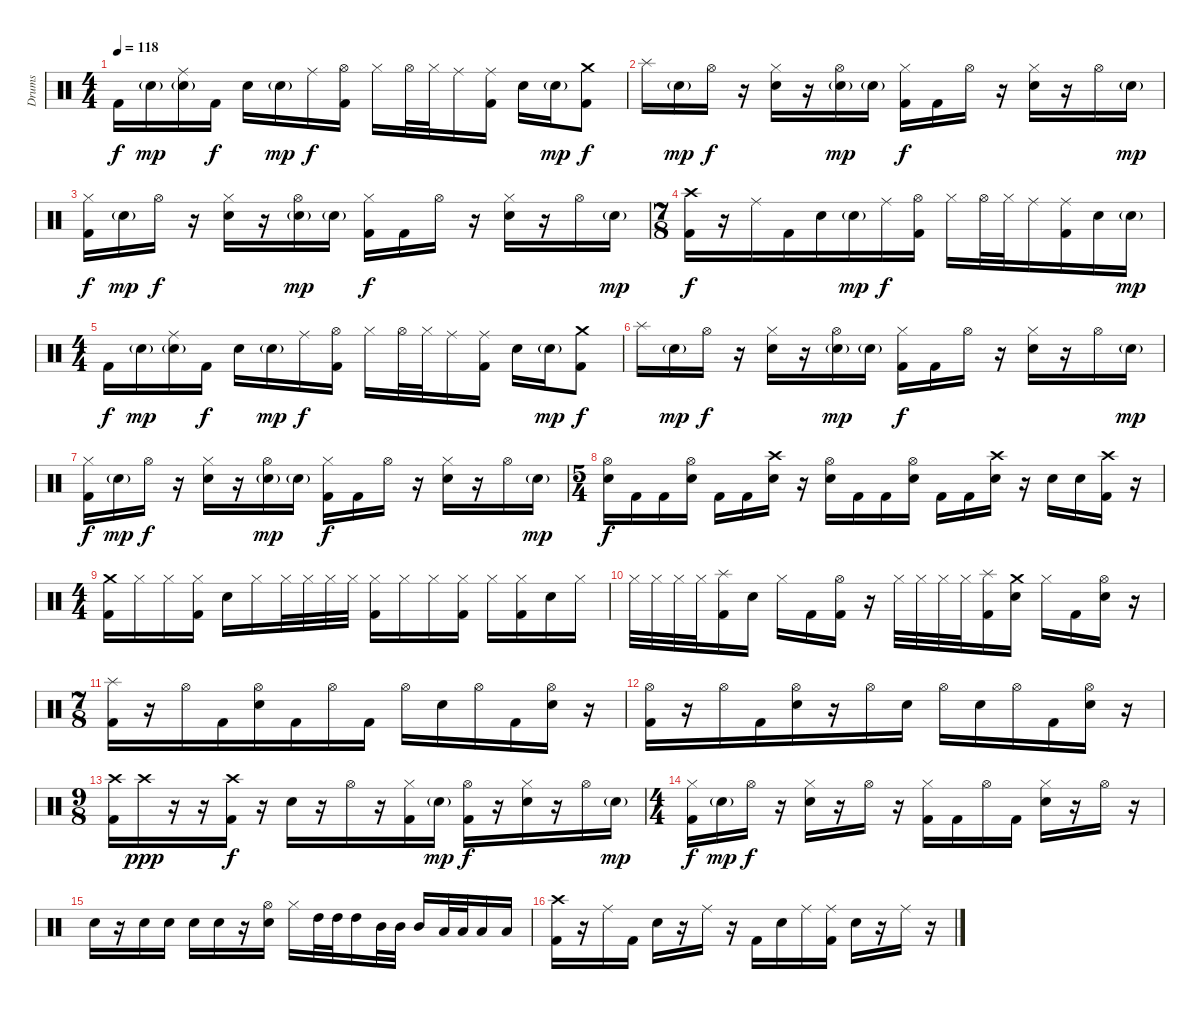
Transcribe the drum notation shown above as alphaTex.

\track ("Drums" "Drums") {instrument percussion}
\staff {score}
\articulation defaults
\ts (4 4)
\tempo 118
\clef neutral
\ks c "Kick (hit) 2".16{dy f} "Snare (hit) 2"{g}.16{dy mp}
("Ride (middle)" "Snare (hit) 2"{g}).16 "Kick (hit) 2".16{dy f} "Snare (hit) 2".16 "Snare (hit) 2"{g}.16{dy mp} "Ride (middle)".16{dy f} ("Hi-Hat (open)" "Kick (hit) 2").16 "Hi-Hat (closed)".16 "Hi-Hat (open)".32 "Hi-Hat (closed)".32 "Ride (middle)".16 ("Kick (hit) 2" "Ride (middle)").16 "Snare (hit) 2".16 "Snare (hit) 2"{g}.16{dy mp} ("Crash medium (hit)" "Kick (hit) 2").8{dy f} |
"Splash (hit)".16 "Snare (hit) 2"{g}.16{dy mp} "Hi-Hat (open)".16{dy f} r.16 ("Hi-Hat (closed)" "Snare (hit) 2").16 r.16 ("Hi-Hat (open)" "Snare (hit) 2"{g}).16{dy mp} "Snare (hit) 2"{g}.16 ("Hi-Hat (closed)" "Kick (hit) 2").16{dy f} "Kick (hit) 2".16 "Hi-Hat (open)".16 r.16 ("Snare (hit) 2" "Hi-Hat (closed)").16 r.16 "Hi-Hat (open)".16 "Snare (hit) 2"{g}.16{dy mp} |
("Hi-Hat (closed)" "Kick (hit) 2").16{dy f} "Snare (hit) 2"{g}.16{dy mp} "Hi-Hat (open)".16{dy f} r.16 ("Hi-Hat (closed)" "Snare (hit) 2").16 r.16 ("Hi-Hat (open)" "Snare (hit) 2"{g}).16{dy mp} "Snare (hit) 2"{g}.16 ("Hi-Hat (closed)" "Kick (hit) 2").16{dy f} "Kick (hit) 2".16 "Hi-Hat (open)".16 r.16 ("Snare (hit) 2" "Hi-Hat (closed)").16 r.16 "Hi-Hat (open)".16 "Snare (hit) 2"{g}.16{dy mp} |
\ts (7 8)
("Crash high (hit)" "Kick (hit) 2").16{dy f} r.16 "Ride (middle)".16 "Kick (hit) 2".16 "Snare (hit) 2".16 "Snare (hit) 2"{g}.16{dy mp} "Ride (middle)".16{dy f} ("Hi-Hat (open)" "Kick (hit) 2").16 "Hi-Hat (closed)".16 "Hi-Hat (open)".32 "Hi-Hat (closed)".32 "Ride (middle)".16 ("Kick (hit) 2" "Ride (middle)").16 "Snare (hit) 2".16 "Snare (hit) 2"{g}.16{dy mp} |
\ts (4 4)
"Kick (hit) 2".16{dy f} "Snare (hit) 2"{g}.16{dy mp} ("Ride (middle)" "Snare (hit) 2"{g}).16 "Kick (hit) 2".16{dy f} "Snare (hit) 2".16 "Snare (hit) 2"{g}.16{dy mp} "Ride (middle)".16{dy f} ("Hi-Hat (open)" "Kick (hit) 2").16 "Hi-Hat (closed)".16 "Hi-Hat (open)".32 "Hi-Hat (closed)".32 "Ride (middle)".16 ("Kick (hit) 2" "Ride (middle)").16 "Snare (hit) 2".16 "Snare (hit) 2"{g}.16{dy mp} ("Crash medium (hit)" "Kick (hit) 2").8{dy f} |
"Splash (hit)".16 "Snare (hit) 2"{g}.16{dy mp} "Hi-Hat (open)".16{dy f} r.16 ("Hi-Hat (closed)" "Snare (hit) 2").16 r.16 ("Hi-Hat (open)" "Snare (hit) 2"{g}).16{dy mp} "Snare (hit) 2"{g}.16 ("Hi-Hat (closed)" "Kick (hit) 2").16{dy f} "Kick (hit) 2".16 "Hi-Hat (open)".16 r.16 ("Snare (hit) 2" "Hi-Hat (closed)").16 r.16 "Hi-Hat (open)".16 "Snare (hit) 2"{g}.16{dy mp} |
("Hi-Hat (closed)" "Kick (hit) 2").16{dy f} "Snare (hit) 2"{g}.16{dy mp} "Hi-Hat (open)".16{dy f} r.16 ("Hi-Hat (closed)" "Snare (hit) 2").16 r.16 ("Hi-Hat (open)" "Snare (hit) 2"{g}).16{dy mp} "Snare (hit) 2"{g}.16 ("Hi-Hat (closed)" "Kick (hit) 2").16{dy f} "Kick (hit) 2".16 "Hi-Hat (open)".16 r.16 ("Snare (hit) 2" "Hi-Hat (closed)").16 r.16 "Hi-Hat (open)".16 "Snare (hit) 2"{g}.16{dy mp} |
\ts (5 4)
("Snare (hit) 2" "Hi-Hat (open)").16{dy f} "Kick (hit) 2".16 "Kick (hit) 2".16 ("Snare (hit) 2" "Hi-Hat (open)").16 "Kick (hit) 2".16 "Kick (hit) 2".16 ("Snare (hit) 2" "Crash high (hit)").16 r.16 ("Snare (hit) 2" "Hi-Hat (open)").16 "Kick (hit) 2".16 "Kick (hit) 2".16 ("Snare (hit) 2" "Hi-Hat (open)").16 "Kick (hit) 2".16 "Kick (hit) 2".16 ("Snare (hit) 2" "Crash high (hit)").16 r.16 "Snare (hit) 2".16 "Snare (hit) 2".16 ("Kick (hit) 2" "Crash high (hit)").16 r.16 |
\ts (4 4)
("Crash medium (hit)" "Kick (hit) 2").16 "Hi-Hat (closed)".16 "Hi-Hat (closed)".16 ("Hi-Hat (closed)" "Kick (hit) 2").16 "Snare (hit) 2".16 "Hi-Hat (closed)".16 "Hi-Hat (closed)".32 "Hi-Hat (closed)".32 "Hi-Hat (closed)".32 "Hi-Hat (closed)".32 ("Hi-Hat (closed)" "Kick (hit) 2").16 "Hi-Hat (closed)".16 "Hi-Hat (closed)".16 ("Hi-Hat (closed)" "Kick (hit) 2").16 "Hi-Hat (closed)".16 ("Kick (hit) 2" "Hi-Hat (closed)").16 "Snare (hit) 2".16 "Hi-Hat (closed)".16 |
"Hi-Hat (closed)".32 "Hi-Hat (closed)".32 "Hi-Hat (closed)".32 "Hi-Hat (closed)".32 ("Kick (hit) 2" "Splash (hit)").16 "Snare (hit) 2".16 "Hi-Hat (closed)".16 "Kick (hit) 2".16 ("Kick (hit) 2" "Hi-Hat (open)").16 r.16 "Hi-Hat (closed)".32 "Hi-Hat (closed)".32 "Hi-Hat (closed)".32 "Hi-Hat (closed)".32 ("Kick (hit) 2" "Splash (hit)").16 ("Snare (hit) 2" "Crash medium (hit)").16 "Hi-Hat (closed)".16 "Kick (hit) 2".16 ("Snare (hit) 2" "Hi-Hat (open)").16 r.16 |
\ts (7 8)
("Splash (hit)" "Kick (hit) 2").16 r.16 "Hi-Hat (open)".16 "Kick (hit) 2".16 ("Snare (hit) 2" "Hi-Hat (open)").16 "Kick (hit) 2".16 "Hi-Hat (open)".16 "Kick (hit) 2".16 "Hi-Hat (open)".16 "Snare (hit) 2".16 "Hi-Hat (open)".16 "Kick (hit) 2".16 ("Snare (hit) 2" "Hi-Hat (open)").16 r.16 |
("Hi-Hat (open)" "Kick (hit) 2").16 r.16 "Hi-Hat (open)".16 "Kick (hit) 2".16 ("Snare (hit) 2" "Hi-Hat (open)").16 r.16 "Hi-Hat (open)".16 "Snare (hit) 2".16 "Hi-Hat (open)".16 "Snare (hit) 2".16 "Hi-Hat (open)".16 "Kick (hit) 2".16 ("Snare (hit) 2" "Hi-Hat (open)").16 r.16 |
\ts (9 8)
("Kick (hit) 2" "Crash high (hit)").16 "Crash high (hit)".16{dy ppp} r.16 r.16 ("Kick (hit) 2" "Crash high (hit)").16{dy f} r.16 "Snare (hit) 2".16 r.16 "Hi-Hat (open)".16 r.16 ("Hi-Hat (closed)" "Kick (hit) 2").16 "Snare (hit) 2"{g}.16{dy mp} ("Kick (hit) 2" "Hi-Hat (open)").16{dy f} r.16 ("Hi-Hat (closed)" "Snare (hit) 2").16 r.16 "Hi-Hat (open)".16 "Snare (hit) 2"{g}.16{dy mp} |
\ts (4 4)
("Kick (hit) 2" "Hi-Hat (closed)").16{dy f} "Snare (hit) 2"{g}.16{dy mp} "Hi-Hat (open)".16{dy f} r.16 ("Hi-Hat (closed)" "Snare (hit) 2").16 r.16 "Hi-Hat (open)".16 r.16 ("Hi-Hat (closed)" "Kick (hit) 2").16 "Kick (hit) 2".16 "Hi-Hat (open)".16 "Kick (hit) 2".16 ("Snare (hit) 2" "Hi-Hat (closed)").16 r.16 "Hi-Hat (open)".16 r.16 |
"Snare (hit) 2".16 r.16 "Snare (hit) 2".16 "Snare (hit) 2".16 "Snare (hit) 2".16 "Snare (hit) 2".16 r.16 ("Snare (hit) 2" "Hi-Hat (open)").16 "Hi-Hat (closed)".16 "High Tom (hit)".32 "High Tom (hit)".32 "High Tom (hit)".16 "Mid Tom (hit)".32 "Mid Tom (hit)".32 "Mid Tom (hit)".16 "Low Tom (hit)".32 "Low Tom (hit)".32 "Low Tom (hit)".16 "Low Tom (hit)".16 |
("Crash high (hit)" "Kick (hit) 2").16 r.16 "Ride (middle)".16 "Kick (hit) 2".16 "Snare (hit) 2".16 r.16 "Ride (middle)".16 r.16 "Kick (hit) 2".16 "Snare (hit) 2".16 "Ride (middle)".16 ("Kick (hit) 2" "Ride (middle)").16 "Snare (hit) 2".16 r.16 "Ride (middle)".16 r.16
